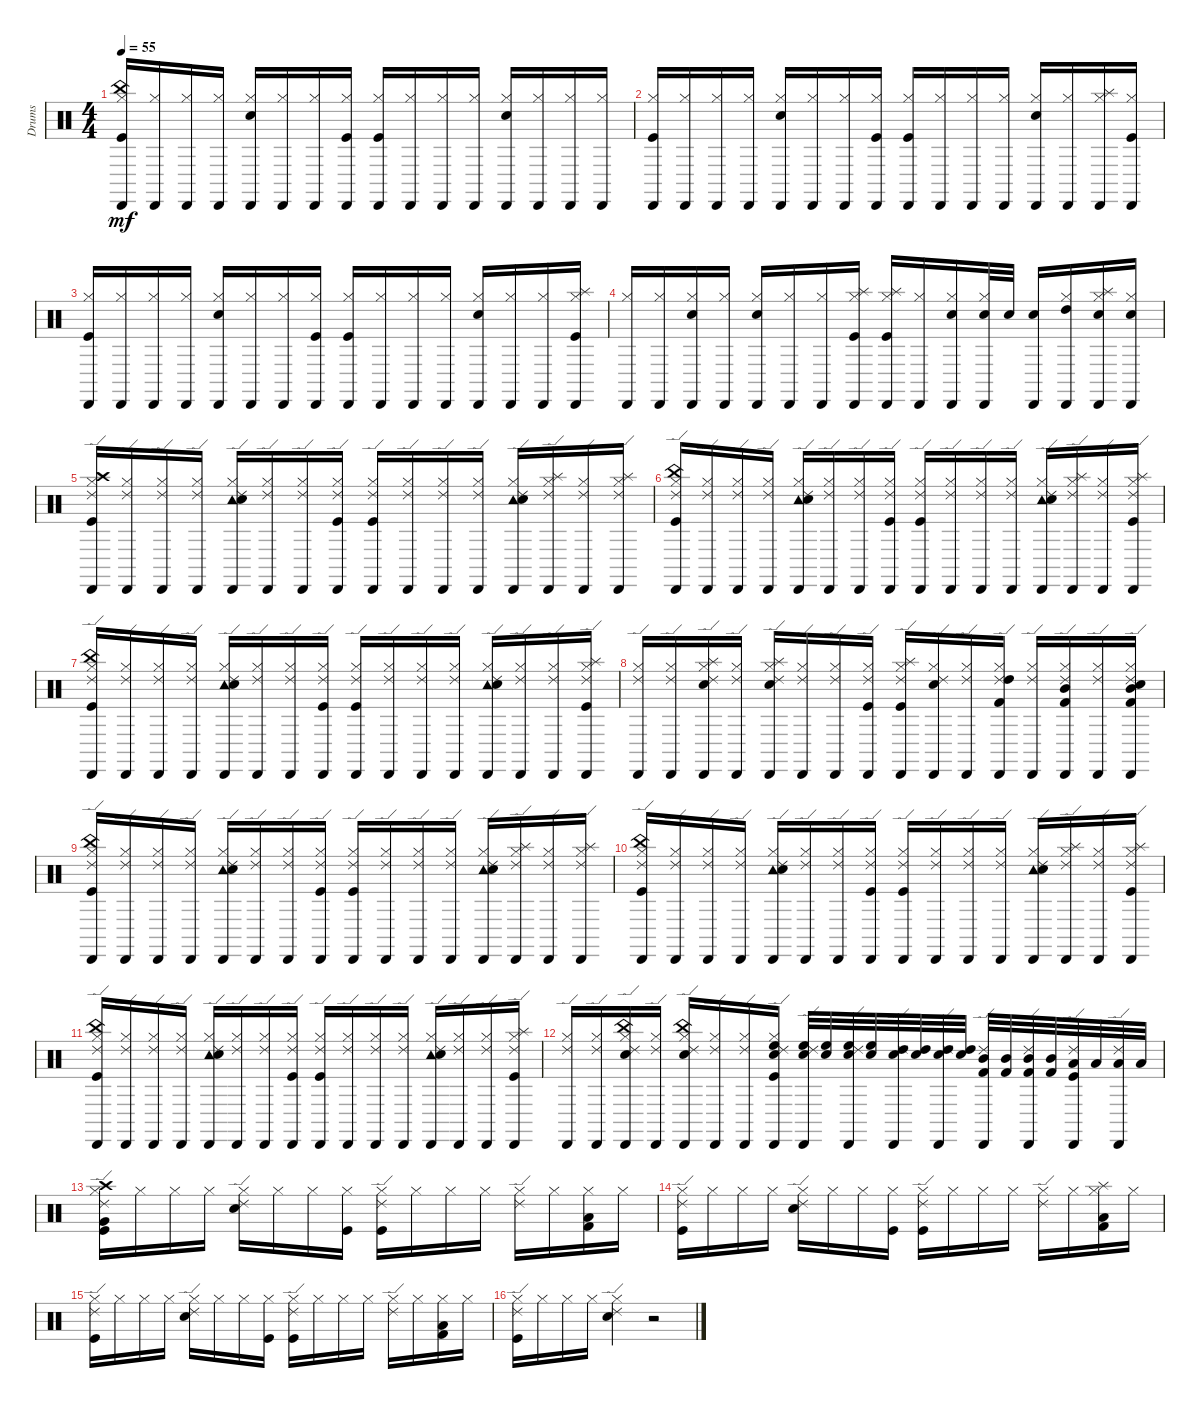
\track ("Drums" "Drums") {instrument percussion}
\staff {score}
\articulation defaults
\ts (4 4)
\tempo 55
\clef neutral
\ks c
("Cabasa (hit)" "Hi-Hat (closed)" "China (hit)" "Kick (hit)").16{dy mf} ("Cabasa (hit)" "Hi-Hat (closed)").16 ("Cabasa (hit)" "Hi-Hat (closed)").16 ("Cabasa (hit)" "Hi-Hat (closed)").16 ("Cabasa (hit)" "Hi-Hat (closed)" "Snare (hit) 2").16 ("Cabasa (hit)" "Hi-Hat (closed)").16 ("Cabasa (hit)" "Hi-Hat (closed)").16 ("Cabasa (hit)" "Hi-Hat (closed)" "Kick (hit)").16 ("Cabasa (hit)" "Hi-Hat (closed)" "Kick (hit)").16 ("Cabasa (hit)" "Hi-Hat (closed)").16 ("Cabasa (hit)" "Hi-Hat (closed)").16 ("Cabasa (hit)" "Hi-Hat (closed)").16 ("Cabasa (hit)" "Hi-Hat (closed)" "Snare (hit) 2").16 ("Cabasa (hit)" "Hi-Hat (closed)").16 ("Cabasa (hit)" "Hi-Hat (closed)").16 ("Cabasa (hit)" "Hi-Hat (closed)").16 |
("Cabasa (hit)" "Hi-Hat (closed)" "Kick (hit)").16 ("Cabasa (hit)" "Hi-Hat (closed)").16 ("Cabasa (hit)" "Hi-Hat (closed)").16 ("Cabasa (hit)" "Hi-Hat (closed)").16 ("Cabasa (hit)" "Hi-Hat (closed)" "Snare (hit) 2").16 ("Cabasa (hit)" "Hi-Hat (closed)").16 ("Cabasa (hit)" "Hi-Hat (closed)").16 ("Cabasa (hit)" "Hi-Hat (closed)" "Kick (hit)").16 ("Cabasa (hit)" "Hi-Hat (closed)" "Kick (hit)").16 ("Cabasa (hit)" "Hi-Hat (closed)").16 ("Cabasa (hit)" "Hi-Hat (closed)").16 ("Cabasa (hit)" "Hi-Hat (closed)").16 ("Cabasa (hit)" "Hi-Hat (closed)" "Snare (hit) 2").16 ("Cabasa (hit)" "Hi-Hat (closed)").16 ("Cabasa (hit)" "Hi-Hat (closed)" "Splash (hit)").16 ("Cabasa (hit)" "Hi-Hat (closed)" "Kick (hit)").16 |
("Cabasa (hit)" "Hi-Hat (closed)" "Kick (hit)").16 ("Cabasa (hit)" "Hi-Hat (closed)").16 ("Cabasa (hit)" "Hi-Hat (closed)").16 ("Cabasa (hit)" "Hi-Hat (closed)").16 ("Cabasa (hit)" "Hi-Hat (closed)" "Snare (hit) 2").16 ("Cabasa (hit)" "Hi-Hat (closed)").16 ("Cabasa (hit)" "Hi-Hat (closed)").16 ("Cabasa (hit)" "Hi-Hat (closed)" "Kick (hit)").16 ("Cabasa (hit)" "Hi-Hat (closed)" "Kick (hit)").16 ("Cabasa (hit)" "Hi-Hat (closed)").16 ("Cabasa (hit)" "Hi-Hat (closed)").16 ("Cabasa (hit)" "Hi-Hat (closed)").16 ("Cabasa (hit)" "Hi-Hat (closed)" "Snare (hit) 2").16 ("Cabasa (hit)" "Hi-Hat (closed)").16 ("Cabasa (hit)" "Hi-Hat (closed)").16 ("Cabasa (hit)" "Hi-Hat (closed)" "Splash (hit)" "Kick (hit)").16 |
("Cabasa (hit)" "Hi-Hat (closed)").16 ("Cabasa (hit)" "Hi-Hat (closed)").16 ("Cabasa (hit)" "Hi-Hat (closed)" "Snare (hit) 2").16 ("Cabasa (hit)" "Hi-Hat (closed)").16 ("Cabasa (hit)" "Hi-Hat (closed)" "Snare (hit) 2").16 ("Cabasa (hit)" "Hi-Hat (closed)").16 ("Cabasa (hit)" "Hi-Hat (closed)").16 ("Cabasa (hit)" "Hi-Hat (closed)" "Splash (hit)" "Kick (hit)").16 ("Cabasa (hit)" "Hi-Hat (closed)" "Splash (hit)" "Kick (hit)").16 ("Cabasa (hit)" "Hi-Hat (closed)").16 ("Cabasa (hit)" "Hi-Hat (closed)" "Snare (hit) 2").16 ("Cabasa (hit)" "Hi-Hat (closed)" "Snare (hit) 2").32 "Snare (hit) 2".32 ("Cabasa (hit)" "Snare (hit) 2").16 ("Cabasa (hit)" "Hi-Hat (closed)" "High Tom (hit)").16 ("Cabasa (hit)" "Hi-Hat (closed)" "Splash (hit)" "Snare (hit) 2").16 ("Cabasa (hit)" "Hi-Hat (closed)" "Snare (hit) 2").16 |
("Cabasa (hit)" "Hi-Hat (closed)" "Ride (edge) 2" "Crash high (hit)" "Kick (hit)").16 ("Cabasa (hit)" "Hi-Hat (closed)" "Ride (edge) 2").16 ("Cabasa (hit)" "Hi-Hat (closed)" "Ride (edge) 2").16 ("Cabasa (hit)" "Hi-Hat (closed)" "Ride (edge) 2").16 ("Cabasa (hit)" "Hi-Hat (closed)" "Ride (edge) 2" "Tambourine (hit)" "Snare (hit) 2").16 ("Cabasa (hit)" "Hi-Hat (closed)" "Ride (edge) 2").16 ("Cabasa (hit)" "Hi-Hat (closed)" "Ride (edge) 2").16 ("Cabasa (hit)" "Hi-Hat (closed)" "Ride (edge) 2" "Kick (hit)").16 ("Cabasa (hit)" "Hi-Hat (closed)" "Ride (edge) 2" "Kick (hit)").16 ("Cabasa (hit)" "Hi-Hat (closed)" "Ride (edge) 2").16 ("Cabasa (hit)" "Hi-Hat (closed)" "Ride (edge) 2").16 ("Cabasa (hit)" "Hi-Hat (closed)" "Ride (edge) 2").16 ("Cabasa (hit)" "Hi-Hat (closed)" "Ride (edge) 2" "Tambourine (hit)" "Snare (hit) 2").16 ("Cabasa (hit)" "Hi-Hat (closed)" "Ride (edge) 2" "Splash (hit)").16 ("Cabasa (hit)" "Hi-Hat (closed)" "Ride (edge) 2").16 ("Cabasa (hit)" "Hi-Hat (closed)" "Ride (edge) 2" "Splash (hit)").16 |
("Cabasa (hit)" "Hi-Hat (closed)" "Ride (edge) 2" "China (hit)" "Kick (hit)").16 ("Cabasa (hit)" "Hi-Hat (closed)" "Ride (edge) 2").16 ("Cabasa (hit)" "Hi-Hat (closed)" "Ride (edge) 2").16 ("Cabasa (hit)" "Hi-Hat (closed)" "Ride (edge) 2").16 ("Cabasa (hit)" "Hi-Hat (closed)" "Ride (edge) 2" "Tambourine (hit)" "Snare (hit) 2").16 ("Cabasa (hit)" "Hi-Hat (closed)" "Ride (edge) 2").16 ("Cabasa (hit)" "Hi-Hat (closed)" "Ride (edge) 2").16 ("Cabasa (hit)" "Hi-Hat (closed)" "Ride (edge) 2" "Kick (hit)").16 ("Cabasa (hit)" "Hi-Hat (closed)" "Ride (edge) 2" "Kick (hit)").16 ("Cabasa (hit)" "Hi-Hat (closed)" "Ride (edge) 2").16 ("Cabasa (hit)" "Hi-Hat (closed)" "Ride (edge) 2").16 ("Cabasa (hit)" "Hi-Hat (closed)" "Ride (edge) 2").16 ("Cabasa (hit)" "Hi-Hat (closed)" "Ride (edge) 2" "Tambourine (hit)" "Snare (hit) 2").16 ("Cabasa (hit)" "Hi-Hat (closed)" "Ride (edge) 2" "Splash (hit)").16 ("Cabasa (hit)" "Hi-Hat (closed)" "Ride (edge) 2").16 ("Cabasa (hit)" "Hi-Hat (closed)" "Ride (edge) 2" "Splash (hit)" "Kick (hit)").16 |
("Cabasa (hit)" "Hi-Hat (closed)" "Ride (edge) 2" "China (hit)" "Kick (hit)").16 ("Cabasa (hit)" "Hi-Hat (closed)" "Ride (edge) 2").16 ("Cabasa (hit)" "Hi-Hat (closed)" "Ride (edge) 2").16 ("Cabasa (hit)" "Hi-Hat (closed)" "Ride (edge) 2").16 ("Cabasa (hit)" "Hi-Hat (closed)" "Ride (edge) 2" "Tambourine (hit)" "Snare (hit) 2").16 ("Cabasa (hit)" "Hi-Hat (closed)" "Ride (edge) 2").16 ("Cabasa (hit)" "Hi-Hat (closed)" "Ride (edge) 2").16 ("Cabasa (hit)" "Hi-Hat (closed)" "Ride (edge) 2" "Kick (hit)").16 ("Cabasa (hit)" "Hi-Hat (closed)" "Ride (edge) 2" "Kick (hit)").16 ("Cabasa (hit)" "Hi-Hat (closed)" "Ride (edge) 2").16 ("Cabasa (hit)" "Hi-Hat (closed)" "Ride (edge) 2").16 ("Cabasa (hit)" "Hi-Hat (closed)" "Ride (edge) 2").16 ("Cabasa (hit)" "Hi-Hat (closed)" "Ride (edge) 2" "Tambourine (hit)" "Snare (hit) 2").16 ("Cabasa (hit)" "Hi-Hat (closed)" "Ride (edge) 2").16 ("Cabasa (hit)" "Hi-Hat (closed)" "Ride (edge) 2").16 ("Cabasa (hit)" "Hi-Hat (closed)" "Ride (edge) 2" "Splash (hit)" "Kick (hit)").16 |
("Cabasa (hit)" "Hi-Hat (closed)" "Ride (edge) 2").16 ("Cabasa (hit)" "Hi-Hat (closed)" "Ride (edge) 2").16 ("Cabasa (hit)" "Hi-Hat (closed)" "Ride (edge) 2" "Splash (hit)" "Snare (hit) 2").16 ("Cabasa (hit)" "Hi-Hat (closed)" "Ride (edge) 2").16 ("Cabasa (hit)" "Hi-Hat (closed)" "Ride (edge) 2" "Splash (hit)" "Snare (hit) 2").16 ("Cabasa (hit)" "Hi-Hat (closed)" "Ride (edge) 2").16 ("Cabasa (hit)" "Hi-Hat (closed)" "Ride (edge) 2").16 ("Cabasa (hit)" "Hi-Hat (closed)" "Ride (edge) 2" "Kick (hit)").16 ("Cabasa (hit)" "Hi-Hat (closed)" "Ride (edge) 2" "Splash (hit)" "Kick (hit)").16 ("Cabasa (hit)" "Hi-Hat (closed)" "Ride (edge) 2" "Electric Snare (hit)").16 ("Cabasa (hit)" "Hi-Hat (closed)" "Ride (edge) 2").16 ("Cabasa (hit)" "Hi-Hat (closed)" "Ride (edge) 2" "High Tom (hit)" "Kick (hit) 2").16 ("Cabasa (hit)" "Hi-Hat (closed)" "Ride (edge) 2").16 ("Cabasa (hit)" "Hi-Hat (closed)" "Ride (edge) 2" "Mid Tom (hit)" "Kick (hit) 2").16 ("Cabasa (hit)" "Hi-Hat (closed)" "Ride (edge) 2").16 ("Cabasa (hit)" "Hi-Hat (closed)" "Ride (edge) 2" "Mid Tom (hit)" "Electric Snare (hit)" "Kick (hit) 2").16 |
("Cabasa (hit)" "Hi-Hat (closed)" "Ride (edge) 2" "China (hit)" "Kick (hit)").16 ("Cabasa (hit)" "Hi-Hat (closed)" "Ride (edge) 2").16 ("Cabasa (hit)" "Hi-Hat (closed)" "Ride (edge) 2").16 ("Cabasa (hit)" "Hi-Hat (closed)" "Ride (edge) 2").16 ("Cabasa (hit)" "Hi-Hat (closed)" "Ride (edge) 2" "Tambourine (hit)" "Snare (hit) 2").16 ("Cabasa (hit)" "Hi-Hat (closed)" "Ride (edge) 2").16 ("Cabasa (hit)" "Hi-Hat (closed)" "Ride (edge) 2").16 ("Cabasa (hit)" "Hi-Hat (closed)" "Ride (edge) 2" "Kick (hit)").16 ("Cabasa (hit)" "Hi-Hat (closed)" "Ride (edge) 2" "Kick (hit)").16 ("Cabasa (hit)" "Hi-Hat (closed)" "Ride (edge) 2").16 ("Cabasa (hit)" "Hi-Hat (closed)" "Ride (edge) 2").16 ("Cabasa (hit)" "Hi-Hat (closed)" "Ride (edge) 2").16 ("Cabasa (hit)" "Hi-Hat (closed)" "Ride (edge) 2" "Tambourine (hit)" "Snare (hit) 2").16 ("Cabasa (hit)" "Hi-Hat (closed)" "Ride (edge) 2" "Splash (hit)").16 ("Cabasa (hit)" "Hi-Hat (closed)" "Ride (edge) 2").16 ("Cabasa (hit)" "Hi-Hat (closed)" "Ride (edge) 2" "Splash (hit)").16 |
("Cabasa (hit)" "Hi-Hat (closed)" "Ride (edge) 2" "China (hit)" "Kick (hit)").16 ("Cabasa (hit)" "Hi-Hat (closed)" "Ride (edge) 2").16 ("Cabasa (hit)" "Hi-Hat (closed)" "Ride (edge) 2").16 ("Cabasa (hit)" "Hi-Hat (closed)" "Ride (edge) 2").16 ("Cabasa (hit)" "Hi-Hat (closed)" "Ride (edge) 2" "Tambourine (hit)" "Snare (hit) 2").16 ("Cabasa (hit)" "Hi-Hat (closed)" "Ride (edge) 2").16 ("Cabasa (hit)" "Hi-Hat (closed)" "Ride (edge) 2").16 ("Cabasa (hit)" "Hi-Hat (closed)" "Ride (edge) 2" "Kick (hit)").16 ("Cabasa (hit)" "Hi-Hat (closed)" "Ride (edge) 2" "Kick (hit)").16 ("Cabasa (hit)" "Hi-Hat (closed)" "Ride (edge) 2").16 ("Cabasa (hit)" "Hi-Hat (closed)" "Ride (edge) 2").16 ("Cabasa (hit)" "Hi-Hat (closed)" "Ride (edge) 2").16 ("Cabasa (hit)" "Hi-Hat (closed)" "Ride (edge) 2" "Tambourine (hit)" "Snare (hit) 2").16 ("Cabasa (hit)" "Hi-Hat (closed)" "Ride (edge) 2" "Splash (hit)").16 ("Cabasa (hit)" "Hi-Hat (closed)" "Ride (edge) 2").16 ("Cabasa (hit)" "Hi-Hat (closed)" "Ride (edge) 2" "Splash (hit)" "Kick (hit)").16 |
("Cabasa (hit)" "Hi-Hat (closed)" "Ride (edge) 2" "China (hit)" "Kick (hit)").16 ("Cabasa (hit)" "Hi-Hat (closed)" "Ride (edge) 2").16 ("Cabasa (hit)" "Hi-Hat (closed)" "Ride (edge) 2").16 ("Cabasa (hit)" "Hi-Hat (closed)" "Ride (edge) 2").16 ("Cabasa (hit)" "Hi-Hat (closed)" "Ride (edge) 2" "Tambourine (hit)" "Snare (hit) 2").16 ("Cabasa (hit)" "Hi-Hat (closed)" "Ride (edge) 2").16 ("Cabasa (hit)" "Hi-Hat (closed)" "Ride (edge) 2").16 ("Cabasa (hit)" "Hi-Hat (closed)" "Ride (edge) 2" "Kick (hit)").16 ("Cabasa (hit)" "Hi-Hat (closed)" "Ride (edge) 2" "Kick (hit)").16 ("Cabasa (hit)" "Hi-Hat (closed)" "Ride (edge) 2").16 ("Cabasa (hit)" "Hi-Hat (closed)" "Ride (edge) 2").16 ("Cabasa (hit)" "Hi-Hat (closed)" "Ride (edge) 2").16 ("Cabasa (hit)" "Hi-Hat (closed)" "Ride (edge) 2" "Tambourine (hit)" "Snare (hit) 2").16 ("Cabasa (hit)" "Hi-Hat (closed)" "Ride (edge) 2").16 ("Cabasa (hit)" "Hi-Hat (closed)" "Ride (edge) 2").16 ("Cabasa (hit)" "Hi-Hat (closed)" "Ride (edge) 2" "Splash (hit)" "Kick (hit)").16 |
("Cabasa (hit)" "Hi-Hat (closed)" "Ride (edge) 2").16 ("Cabasa (hit)" "Hi-Hat (closed)" "Ride (edge) 2").16 ("Cabasa (hit)" "Hi-Hat (closed)" "Ride (edge) 2" "China (hit)" "Snare (hit) 2").16 ("Cabasa (hit)" "Hi-Hat (closed)" "Ride (edge) 2").16 ("Cabasa (hit)" "Hi-Hat (closed)" "Ride (edge) 2" "China (hit)" "Snare (hit) 2").16 ("Cabasa (hit)" "Hi-Hat (closed)" "Ride (edge) 2").16 ("Cabasa (hit)" "Hi-Hat (closed)" "Ride (edge) 2").16 ("Cabasa (hit)" "Hi-Hat (closed)" "Ride (edge) 2" "High Floor Tom (hit)" "Electric Snare (hit)" "Kick (hit)").16 ("Cabasa (hit)" "Ride (edge) 2" "High Floor Tom (hit)" "Electric Snare (hit)").32 ("High Floor Tom (hit)" "Electric Snare (hit)").32 ("Cabasa (hit)" "Ride (edge) 2" "High Floor Tom (hit)" "Electric Snare (hit)").32 ("High Floor Tom (hit)" "Electric Snare (hit)").32 ("Cabasa (hit)" "Ride (edge) 2" "High Tom (hit)" "Snare (hit) 2").32 ("High Tom (hit)" "Snare (hit) 2").32 ("Cabasa (hit)" "Ride (edge) 2" "High Tom (hit)" "Snare (hit) 2").32 ("High Tom (hit)" "Snare (hit) 2").32 ("Cabasa (hit)" "Ride (edge) 2" "Mid Tom (hit)" "Kick (hit) 2").32 ("Mid Tom (hit)" "Kick (hit) 2").32 ("Cabasa (hit)" "Ride (edge) 2" "Mid Tom (hit)" "Kick (hit) 2").32 ("Mid Tom (hit)" "Kick (hit) 2").32 ("Cabasa (hit)" "Ride (edge) 2" "Low Tom (hit)" "Kick (hit)").32 "Low Tom (hit)".32 ("Cabasa (hit)" "Ride (edge) 2" "Low Tom (hit)").32 "Low Tom (hit)".32 |
("Hi-Hat (closed)" "Ride (edge) 2" "Crash high (hit)" "Very Low Tom (hit)" "Kick (hit)").16 "Hi-Hat (closed)".16 "Hi-Hat (closed)".16 "Hi-Hat (closed)".16 ("Hi-Hat (closed)" "Ride (edge) 2" "Snare (hit) 2").16 "Hi-Hat (closed)".16 "Hi-Hat (closed)".16 ("Hi-Hat (closed)" "Kick (hit)").16 ("Hi-Hat (closed)" "Ride (edge) 2" "Kick (hit)").16 "Hi-Hat (closed)".16 "Hi-Hat (closed)".16 "Hi-Hat (closed)".16 ("Hi-Hat (closed)" "Ride (edge) 2").16 "Hi-Hat (closed)".16 ("Hi-Hat (closed)" "Low Tom (hit)" "Kick (hit) 2").16 "Hi-Hat (closed)".16 |
("Hi-Hat (closed)" "Ride (edge) 2" "Kick (hit)").16 "Hi-Hat (closed)".16 "Hi-Hat (closed)".16 "Hi-Hat (closed)".16 ("Hi-Hat (closed)" "Ride (edge) 2" "Snare (hit) 2").16 "Hi-Hat (closed)".16 "Hi-Hat (closed)".16 ("Hi-Hat (closed)" "Kick (hit)").16 ("Hi-Hat (closed)" "Ride (edge) 2" "Kick (hit)").16 "Hi-Hat (closed)".16 "Hi-Hat (closed)".16 "Hi-Hat (closed)".16 ("Hi-Hat (closed)" "Ride (edge) 2").16 "Hi-Hat (closed)".16 ("Hi-Hat (closed)" "Splash (hit)" "Low Tom (hit)" "Kick (hit) 2").16 "Hi-Hat (closed)".16 |
("Hi-Hat (closed)" "Ride (edge) 2" "Kick (hit)").16 "Hi-Hat (closed)".16 "Hi-Hat (closed)".16 "Hi-Hat (closed)".16 ("Hi-Hat (closed)" "Ride (edge) 2" "Snare (hit) 2").16 "Hi-Hat (closed)".16 "Hi-Hat (closed)".16 ("Hi-Hat (closed)" "Kick (hit)").16 ("Hi-Hat (closed)" "Ride (edge) 2" "Kick (hit)").16 "Hi-Hat (closed)".16 "Hi-Hat (closed)".16 "Hi-Hat (closed)".16 ("Hi-Hat (closed)" "Ride (edge) 2").16 "Hi-Hat (closed)".16 ("Hi-Hat (closed)" "Low Tom (hit)" "Kick (hit) 2").16 "Hi-Hat (closed)".16 |
("Hi-Hat (closed)" "Ride (edge) 2" "Kick (hit)").16 "Hi-Hat (closed)".16 "Hi-Hat (closed)".16 "Hi-Hat (closed)".16 ("Hi-Hat (closed)" "Ride (edge) 2" "Snare (hit) 2").4 r.2
